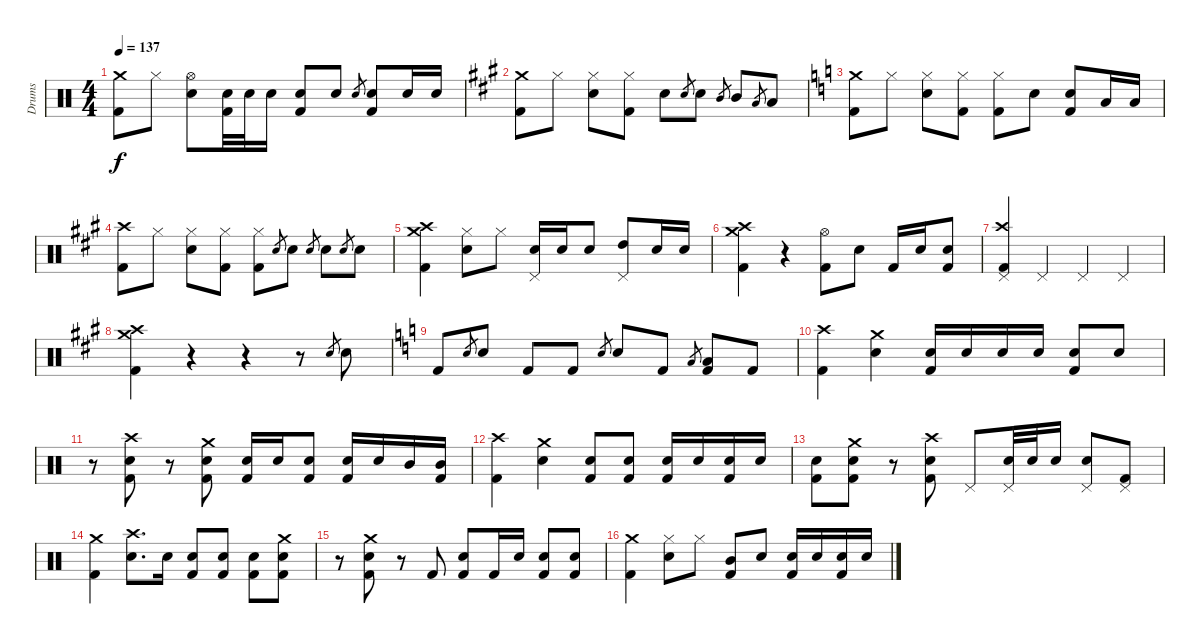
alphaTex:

\track ("Drums" "Drums") {instrument percussion}
\staff {score}
\articulation defaults
\ts (4 4)
\tempo 137
\clef neutral
\ks c
("Crash medium (hit)" "Kick (hit) 2").8{dy f} "Hi-Hat (closed)".8 ("Hi-Hat (open)" "Snare (hit) 2").8 ("Snare (hit) 2" "Kick (hit) 2").32 "Snare (hit) 2".32 "Snare (hit) 2".16 ("Snare (hit) 2" "Kick (hit) 2").8 "Snare (hit) 2".8 "Snare (hit) 2".8{gr} ("Snare (hit) 2" "Kick (hit) 2").8 "Snare (hit) 2".16 "Snare (hit) 2".16 |
\ks a
("Crash medium (hit)" "Kick (hit) 2").8 "Hi-Hat (closed)".8 ("Hi-Hat (closed)" "Snare (hit) 2").8 ("Hi-Hat (closed)" "Kick (hit) 2").8 "Snare (hit) 2".8 "Snare (hit) 2".8{gr} "Snare (hit) 2".8 "Mid Tom (hit)".8{gr} "Mid Tom (hit)".8 "Low Tom (hit)".8{gr} "Low Tom (hit)".8 |
\ks c
("Crash medium (hit)" "Kick (hit) 2").8 "Hi-Hat (closed)".8 ("Hi-Hat (closed)" "Snare (hit) 2").8 ("Hi-Hat (closed)" "Kick (hit) 2").8 ("Hi-Hat (closed)" "Kick (hit) 2").8 "Snare (hit) 2".8 ("Snare (hit) 2" "Kick (hit) 2").8 "Low Tom (hit)".16 "Low Tom (hit)".16 |
\ks a
("Crash high (hit)" "Kick (hit) 2").8 "Hi-Hat (closed)".8 ("Hi-Hat (closed)" "Snare (hit) 2").8 ("Hi-Hat (closed)" "Kick (hit) 2").8 ("Hi-Hat (closed)" "Kick (hit) 2").8 "Snare (hit) 2".8{gr} "Snare (hit) 2".8 "Snare (hit) 2".8{gr} "Snare (hit) 2".8 "Snare (hit) 2".8{gr} "Snare (hit) 2".8 |
("Crash high (hit)" "Crash medium (hit)" "Kick (hit) 2").4 ("Hi-Hat (closed)" "Snare (hit) 2").8 "Hi-Hat (closed)".8 ("Snare (hit) 2" "Pedal Hi-Hat (hit)").16 "Snare (hit) 2".16 "Snare (hit) 2".8 ("High Tom (hit)" "Pedal Hi-Hat (hit)").8 "Snare (hit) 2".16 "Snare (hit) 2".16 |
("Crash medium (hit)" "Crash high (hit)" "Kick (hit) 2").4 r.4 ("Hi-Hat (open)" "Kick (hit) 2").8 "Snare (hit) 2".8 "Kick (hit) 2".16 "Snare (hit) 2".16 ("Snare (hit) 2" "Kick (hit) 2").8 |
("Crash high (hit)" "Pedal Hi-Hat (hit)" "Kick (hit) 2").4 "Pedal Hi-Hat (hit)".4 "Pedal Hi-Hat (hit)".4 "Pedal Hi-Hat (hit)".4 |
("Crash medium (hit)" "Crash high (hit)" "Kick (hit) 2").4 r.4 r.4 r.8 "Snare (hit) 2".8{gr} "Snare (hit) 2".8 |
\ks c "Kick (hit) 2".8 "Snare (hit) 2".8{gr} "Snare (hit) 2".8 "Kick (hit) 2".8 "Kick (hit) 2".8 "Snare (hit) 2".8{gr} "Snare (hit) 2".8 "Kick (hit) 2".8 "Low Tom (hit)".8{gr}
("Low Tom (hit)" "Kick (hit) 2").8 "Kick (hit) 2".8 |
("Crash high (hit)" "Kick (hit) 2").4 ("Crash medium (hit)" "Snare (hit) 2").4 ("Snare (hit) 2" "Kick (hit) 2").16 "Snare (hit) 2".16 "Snare (hit) 2".16 "Snare (hit) 2".16 ("Snare (hit) 2" "Kick (hit) 2").8 "Snare (hit) 2".8 |
r.8 ("Crash high (hit)" "Snare (hit) 2" "Kick (hit) 2").8 r.8 ("Crash medium (hit)" "Snare (hit) 2" "Kick (hit) 2").8 ("Snare (hit) 2" "Kick (hit) 2").16 "Snare (hit) 2".16 ("Snare (hit) 2" "Kick (hit) 2").8 ("Snare (hit) 2" "Kick (hit) 2").16 "Snare (hit) 2".16 "Mid Tom (hit)".16 ("Mid Tom (hit)" "Kick (hit) 2").16 |
("Crash high (hit)" "Kick (hit) 2").4 ("Crash medium (hit)" "Snare (hit) 2").4 ("Snare (hit) 2" "Kick (hit) 2").8 ("Snare (hit) 2" "Kick (hit) 2").8 ("Snare (hit) 2" "Kick (hit) 2").16 "Snare (hit) 2".16 ("Snare (hit) 2" "Kick (hit) 2").16 "Snare (hit) 2".16 |
("Snare (hit) 2" "Kick (hit) 2").8 ("Crash medium (hit)" "Snare (hit) 2" "Kick (hit) 2").8 r.8 ("Crash high (hit)" "Snare (hit) 2" "Kick (hit) 2").8 "Pedal Hi-Hat (hit)".8 ("Snare (hit) 2" "Pedal Hi-Hat (hit)").32 "Snare (hit) 2".32 "Snare (hit) 2".16 ("Snare (hit) 2" "Pedal Hi-Hat (hit)").8 ("Kick (hit) 2" "Pedal Hi-Hat (hit)").8 |
("Crash medium (hit)" "Kick (hit) 2").4 ("Crash high (hit)" "Snare (hit) 2").8{d} "Snare (hit) 2".16 ("Snare (hit) 2" "Kick (hit) 2").8 ("Snare (hit) 2" "Kick (hit) 2").8 ("Snare (hit) 2" "Kick (hit) 2").8 ("Crash medium (hit)" "Snare (hit) 2" "Kick (hit) 2").8 |
r.8 ("Crash medium (hit)" "Snare (hit) 2" "Kick (hit) 2").8 r.8 "Kick (hit) 2".8 ("Snare (hit) 2" "Kick (hit) 2").8 "Kick (hit) 2".16 "Snare (hit) 2".16 ("Snare (hit) 2" "Kick (hit) 2").8 ("Snare (hit) 2" "Kick (hit) 2").8 |
("Crash medium (hit)" "Kick (hit) 2").4 ("Hi-Hat (closed)" "Snare (hit) 2").8 "Hi-Hat (closed)".8 ("Mid Tom (hit)" "Kick (hit) 2").8 "Snare (hit) 2".8 ("Snare (hit) 2" "Kick (hit) 2").16 "Snare (hit) 2".16 ("Snare (hit) 2" "Kick (hit) 2").16 "Snare (hit) 2".16
